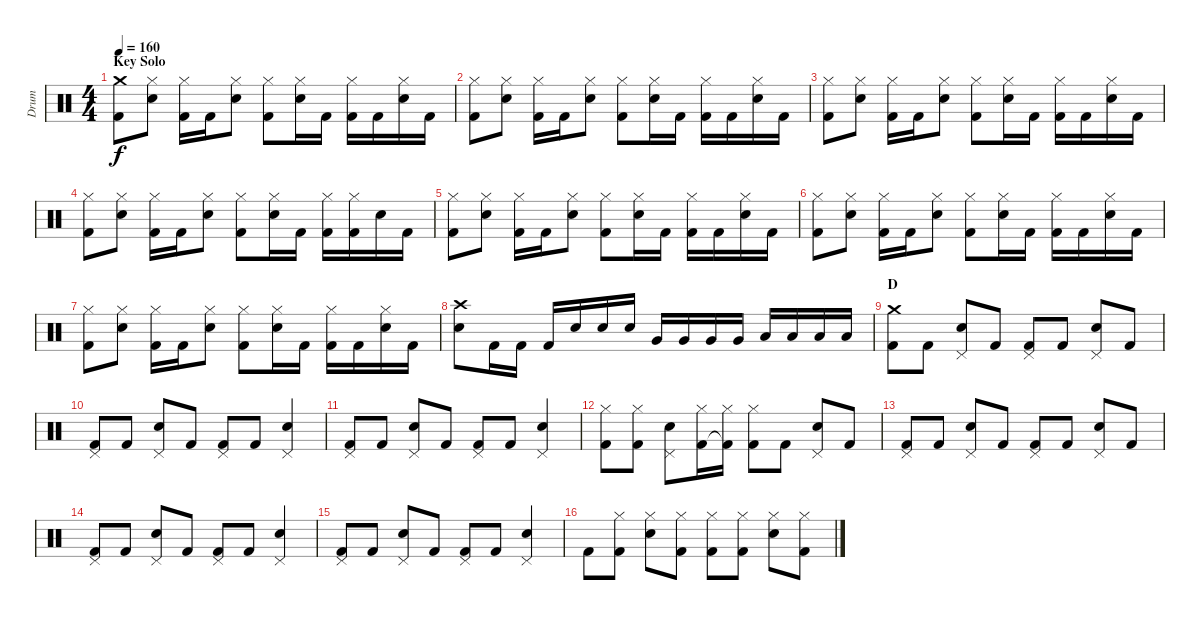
\track ("Drum" "Drum") {instrument percussion}
\staff {score}
\articulation defaults
\ts (4 4)
\section ("" "Key Solo")
\tempo 160
\clef neutral
\ks c
("Crash medium (hit)" "Kick (hit) 2").8{dy f} ("Hi-Hat (closed)" "Snare (hit) 2").8 ("Hi-Hat (closed)" "Kick (hit) 2").16 "Kick (hit) 2".16 ("Hi-Hat (closed)" "Snare (hit) 2").8 ("Hi-Hat (closed)" "Kick (hit) 2").8 ("Hi-Hat (closed)" "Snare (hit) 2").16 "Kick (hit) 2".16 ("Hi-Hat (closed)" "Kick (hit) 2").16 "Kick (hit) 2".16 ("Hi-Hat (closed)" "Snare (hit) 2").16 "Kick (hit) 2".16 |
("Hi-Hat (closed)" "Kick (hit) 2").8 ("Hi-Hat (closed)" "Snare (hit) 2").8 ("Hi-Hat (closed)" "Kick (hit) 2").16 "Kick (hit) 2".16 ("Hi-Hat (closed)" "Snare (hit) 2").8 ("Hi-Hat (closed)" "Kick (hit) 2").8 ("Hi-Hat (closed)" "Snare (hit) 2").16 "Kick (hit) 2".16 ("Hi-Hat (closed)" "Kick (hit) 2").16 "Kick (hit) 2".16 ("Hi-Hat (closed)" "Snare (hit) 2").16 "Kick (hit) 2".16 |
("Hi-Hat (closed)" "Kick (hit) 2").8 ("Hi-Hat (closed)" "Snare (hit) 2").8 ("Hi-Hat (closed)" "Kick (hit) 2").16 "Kick (hit) 2".16 ("Hi-Hat (closed)" "Snare (hit) 2").8 ("Hi-Hat (closed)" "Kick (hit) 2").8 ("Hi-Hat (closed)" "Snare (hit) 2").16 "Kick (hit) 2".16 ("Hi-Hat (closed)" "Kick (hit) 2").16 "Kick (hit) 2".16 ("Hi-Hat (closed)" "Snare (hit) 2").16 "Kick (hit) 2".16 |
("Hi-Hat (closed)" "Kick (hit) 2").8 ("Hi-Hat (closed)" "Snare (hit) 2").8 ("Hi-Hat (closed)" "Kick (hit) 2").16 "Kick (hit) 2".16 ("Hi-Hat (closed)" "Snare (hit) 2").8 ("Hi-Hat (closed)" "Kick (hit) 2").8 ("Hi-Hat (closed)" "Snare (hit) 2").16 "Kick (hit) 2".16 ("Hi-Hat (closed)" "Kick (hit) 2").16 ("Hi-Hat (closed)" "Kick (hit) 2").16 "Snare (hit) 2".16 "Kick (hit) 2".16 |
("Hi-Hat (closed)" "Kick (hit) 2").8 ("Hi-Hat (closed)" "Snare (hit) 2").8 ("Hi-Hat (closed)" "Kick (hit) 2").16 "Kick (hit) 2".16 ("Hi-Hat (closed)" "Snare (hit) 2").8 ("Hi-Hat (closed)" "Kick (hit) 2").8 ("Hi-Hat (closed)" "Snare (hit) 2").16 "Kick (hit) 2".16 ("Hi-Hat (closed)" "Kick (hit) 2").16 "Kick (hit) 2".16 ("Hi-Hat (closed)" "Snare (hit) 2").16 "Kick (hit) 2".16 |
("Hi-Hat (closed)" "Kick (hit) 2").8 ("Hi-Hat (closed)" "Snare (hit) 2").8 ("Hi-Hat (closed)" "Kick (hit) 2").16 "Kick (hit) 2".16 ("Hi-Hat (closed)" "Snare (hit) 2").8 ("Hi-Hat (closed)" "Kick (hit) 2").8 ("Hi-Hat (closed)" "Snare (hit) 2").16 "Kick (hit) 2".16 ("Hi-Hat (closed)" "Kick (hit) 2").16 "Kick (hit) 2".16 ("Hi-Hat (closed)" "Snare (hit) 2").16 "Kick (hit) 2".16 |
("Hi-Hat (closed)" "Kick (hit) 2").8 ("Hi-Hat (closed)" "Snare (hit) 2").8 ("Hi-Hat (closed)" "Kick (hit) 2").16 "Kick (hit) 2".16 ("Hi-Hat (closed)" "Snare (hit) 2").8 ("Hi-Hat (closed)" "Kick (hit) 2").8 ("Hi-Hat (closed)" "Snare (hit) 2").16 "Kick (hit) 2".16 ("Hi-Hat (closed)" "Kick (hit) 2").16 "Kick (hit) 2".16 ("Hi-Hat (closed)" "Snare (hit) 2").16 "Kick (hit) 2".16 |
("Crash high (hit)" "Snare (hit) 2").8 "Kick (hit) 2".16 "Kick (hit) 2".16 "Kick (hit) 2".16 "Snare (hit) 2".16 "Snare (hit) 2".16 "Snare (hit) 2".16 "Very Low Tom (hit)".16 "Very Low Tom (hit)".16 "Very Low Tom (hit)".16 "Very Low Tom (hit)".16 "Low Floor Tom (hit)".16 "Low Floor Tom (hit)".16 "Low Floor Tom (hit)".16 "Low Floor Tom (hit)".16 |
\section ("" "D")
("Crash medium (hit)" "Kick (hit) 2").8 "Kick (hit) 2".8 ("Pedal Hi-Hat (hit)" "Snare (hit) 2").8 "Kick (hit) 2".8 ("Pedal Hi-Hat (hit)" "Kick (hit) 2").8 "Kick (hit) 2".8 ("Pedal Hi-Hat (hit)" "Snare (hit) 2").8 "Kick (hit) 2".8 |
("Pedal Hi-Hat (hit)" "Kick (hit) 2").8 "Kick (hit) 2".8 ("Pedal Hi-Hat (hit)" "Snare (hit) 2").8 "Kick (hit) 2".8 ("Pedal Hi-Hat (hit)" "Kick (hit) 2").8 "Kick (hit) 2".8 ("Pedal Hi-Hat (hit)" "Snare (hit) 2").4 |
("Pedal Hi-Hat (hit)" "Kick (hit) 2").8 "Kick (hit) 2".8 ("Pedal Hi-Hat (hit)" "Snare (hit) 2").8 "Kick (hit) 2".8 ("Pedal Hi-Hat (hit)" "Kick (hit) 2").8 "Kick (hit) 2".8 ("Pedal Hi-Hat (hit)" "Snare (hit) 2").4 |
("Hi-Hat (closed)" "Kick (hit) 2").8 ("Hi-Hat (closed)" "Kick (hit) 2").8 ("Pedal Hi-Hat (hit)" "Snare (hit) 2").8 ("Hi-Hat (closed)" "Kick (hit) 2").16 ("Hi-Hat (closed)" "Kick (hit) 2"{t}).16 ("Hi-Hat (closed)" "Kick (hit) 2").8 "Kick (hit) 2".8 ("Pedal Hi-Hat (hit)" "Snare (hit) 2").8 "Kick (hit) 2".8 |
("Pedal Hi-Hat (hit)" "Kick (hit) 2").8 "Kick (hit) 2".8 ("Pedal Hi-Hat (hit)" "Snare (hit) 2").8 "Kick (hit) 2".8 ("Pedal Hi-Hat (hit)" "Kick (hit) 2").8 "Kick (hit) 2".8 ("Pedal Hi-Hat (hit)" "Snare (hit) 2").8 "Kick (hit) 2".8 |
("Pedal Hi-Hat (hit)" "Kick (hit) 2").8 "Kick (hit) 2".8 ("Pedal Hi-Hat (hit)" "Snare (hit) 2").8 "Kick (hit) 2".8 ("Pedal Hi-Hat (hit)" "Kick (hit) 2").8 "Kick (hit) 2".8 ("Pedal Hi-Hat (hit)" "Snare (hit) 2").4 |
("Pedal Hi-Hat (hit)" "Kick (hit) 2").8 "Kick (hit) 2".8 ("Pedal Hi-Hat (hit)" "Snare (hit) 2").8 "Kick (hit) 2".8 ("Pedal Hi-Hat (hit)" "Kick (hit) 2").8 "Kick (hit) 2".8 ("Pedal Hi-Hat (hit)" "Snare (hit) 2").4 |
"Kick (hit) 2".8 ("Hi-Hat (closed)" "Kick (hit) 2").8 ("Hi-Hat (closed)" "Snare (hit) 2").8 ("Hi-Hat (closed)" "Kick (hit) 2").8 ("Hi-Hat (closed)" "Kick (hit) 2").8 ("Hi-Hat (closed)" "Kick (hit) 2").8 ("Hi-Hat (closed)" "Snare (hit) 2").8 ("Hi-Hat (closed)" "Kick (hit) 2").8
